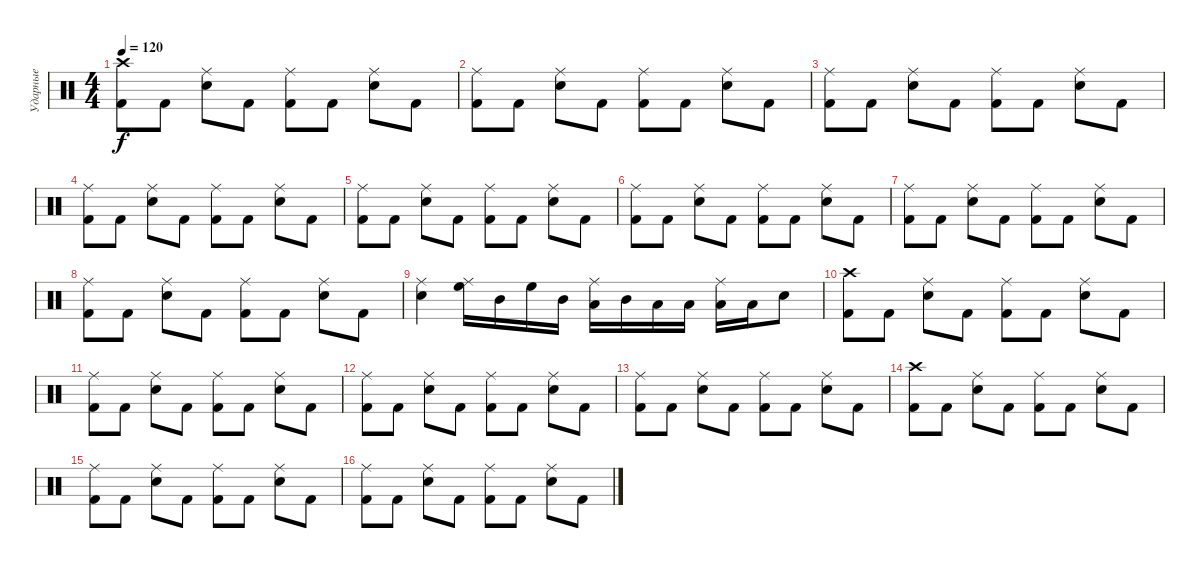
\track ("Ударные" "Ударные") {instrument percussion}
\staff {score}
\articulation defaults
\ts (4 4)
\tempo 120
\clef neutral
\ks c
("Crash high (hit)" "Kick (hit) 2").8{dy f} "Kick (hit) 2".8 ("Ride (middle)" "Snare (hit) 2").8 "Kick (hit) 2".8 ("Ride (middle)" "Kick (hit) 2").8 "Kick (hit) 2".8 ("Ride (middle)" "Snare (hit) 2").8 "Kick (hit) 2".8 |
("Ride (middle)" "Kick (hit) 2").8 "Kick (hit) 2".8 ("Ride (middle)" "Snare (hit) 2").8 "Kick (hit) 2".8 ("Ride (middle)" "Kick (hit) 2").8 "Kick (hit) 2".8 ("Ride (middle)" "Snare (hit) 2").8 "Kick (hit) 2".8 |
("Ride (middle)" "Kick (hit) 2").8 "Kick (hit) 2".8 ("Ride (middle)" "Snare (hit) 2").8 "Kick (hit) 2".8 ("Ride (middle)" "Kick (hit) 2").8 "Kick (hit) 2".8 ("Ride (middle)" "Snare (hit) 2").8 "Kick (hit) 2".8 |
("Ride (middle)" "Kick (hit) 2").8 "Kick (hit) 2".8 ("Ride (middle)" "Snare (hit) 2").8 "Kick (hit) 2".8 ("Ride (middle)" "Kick (hit) 2").8 "Kick (hit) 2".8 ("Ride (middle)" "Snare (hit) 2").8 "Kick (hit) 2".8 |
("Ride (middle)" "Kick (hit) 2").8 "Kick (hit) 2".8 ("Ride (middle)" "Snare (hit) 2").8 "Kick (hit) 2".8 ("Ride (middle)" "Kick (hit) 2").8 "Kick (hit) 2".8 ("Ride (middle)" "Snare (hit) 2").8 "Kick (hit) 2".8 |
("Ride (middle)" "Kick (hit) 2").8 "Kick (hit) 2".8 ("Ride (middle)" "Snare (hit) 2").8 "Kick (hit) 2".8 ("Ride (middle)" "Kick (hit) 2").8 "Kick (hit) 2".8 ("Ride (middle)" "Snare (hit) 2").8 "Kick (hit) 2".8 |
("Ride (middle)" "Kick (hit) 2").8 "Kick (hit) 2".8 ("Ride (middle)" "Snare (hit) 2").8 "Kick (hit) 2".8 ("Ride (middle)" "Kick (hit) 2").8 "Kick (hit) 2".8 ("Ride (middle)" "Snare (hit) 2").8 "Kick (hit) 2".8 |
("Ride (middle)" "Kick (hit) 2").8 "Kick (hit) 2".8 ("Ride (middle)" "Snare (hit) 2").8 "Kick (hit) 2".8 ("Ride (middle)" "Kick (hit) 2").8 "Kick (hit) 2".8 ("Ride (middle)" "Snare (hit) 2").8 "Kick (hit) 2".8 |
("Ride (middle)" "Snare (hit) 2").4 ("Ride (middle)" "High Floor Tom (hit)").16 "Mid Tom (hit)".16 "High Floor Tom (hit)".16 "Mid Tom (hit)".16 ("Ride (middle)" "Low Tom (hit)").16 "Mid Tom (hit)".16 "Low Tom (hit)".16 "Low Floor Tom (hit)".16 ("Ride (middle)" "Low Tom (hit)").16 "Low Floor Tom (hit)".16 "Snare (hit) 2".8 |
("Crash high (hit)" "Kick (hit) 2").8 "Kick (hit) 2".8 ("Ride (middle)" "Snare (hit) 2").8 "Kick (hit) 2".8 ("Ride (middle)" "Kick (hit) 2").8 "Kick (hit) 2".8 ("Ride (middle)" "Snare (hit) 2").8 "Kick (hit) 2".8 |
("Ride (middle)" "Kick (hit) 2").8 "Kick (hit) 2".8 ("Ride (middle)" "Snare (hit) 2").8 "Kick (hit) 2".8 ("Ride (middle)" "Kick (hit) 2").8 "Kick (hit) 2".8 ("Ride (middle)" "Snare (hit) 2").8 "Kick (hit) 2".8 |
("Ride (middle)" "Kick (hit) 2").8 "Kick (hit) 2".8 ("Ride (middle)" "Snare (hit) 2").8 "Kick (hit) 2".8 ("Ride (middle)" "Kick (hit) 2").8 "Kick (hit) 2".8 ("Ride (middle)" "Snare (hit) 2").8 "Kick (hit) 2".8 |
("Ride (middle)" "Kick (hit) 2").8 "Kick (hit) 2".8 ("Ride (middle)" "Snare (hit) 2").8 "Kick (hit) 2".8 ("Ride (middle)" "Kick (hit) 2").8 "Kick (hit) 2".8 ("Ride (middle)" "Snare (hit) 2").8 "Kick (hit) 2".8 |
("Crash high (hit)" "Kick (hit) 2").8 "Kick (hit) 2".8 ("Ride (middle)" "Snare (hit) 2").8 "Kick (hit) 2".8 ("Ride (middle)" "Kick (hit) 2").8 "Kick (hit) 2".8 ("Ride (middle)" "Snare (hit) 2").8 "Kick (hit) 2".8 |
("Ride (middle)" "Kick (hit) 2").8 "Kick (hit) 2".8 ("Ride (middle)" "Snare (hit) 2").8 "Kick (hit) 2".8 ("Ride (middle)" "Kick (hit) 2").8 "Kick (hit) 2".8 ("Ride (middle)" "Snare (hit) 2").8 "Kick (hit) 2".8 |
("Ride (middle)" "Kick (hit) 2").8 "Kick (hit) 2".8 ("Ride (middle)" "Snare (hit) 2").8 "Kick (hit) 2".8 ("Ride (middle)" "Kick (hit) 2").8 "Kick (hit) 2".8 ("Ride (middle)" "Snare (hit) 2").8 "Kick (hit) 2".8
